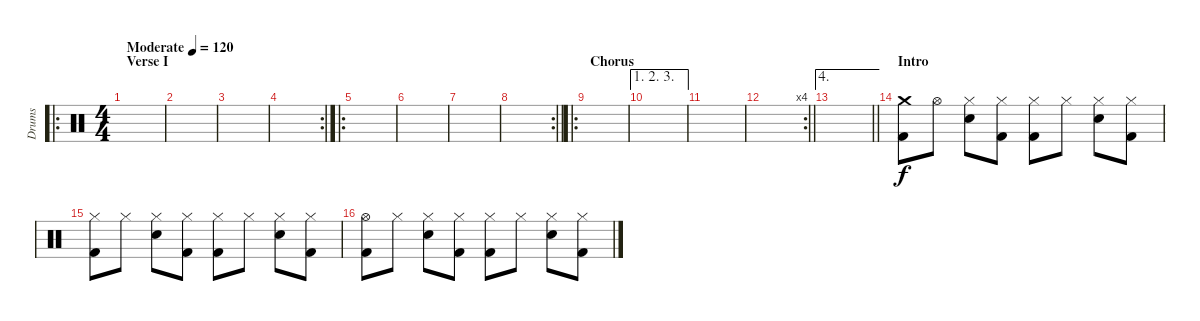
\track ("Drums" "Drums") {instrument percussion}
\staff {score}
\articulation defaults
\ro
\ts (4 4)
\section ("" "Verse I")
\tempo (120 "Moderate")
\clef neutral
\ks c
|
|
|
\rc 2
|
\ro
|
|
|
\rc 2
\barLineRight lightlight
|
\ro
\section ("" "Chorus")
|
\ae (1 2 3)
|
|
\rc 4
\barLineRight lightlight
|
\ae 4
\barLineRight lightlight
|
\section ("" "Intro")
("Kick (hit) 2" "Crash medium (hit)").8 "Hi-Hat (open)".8 ("Snare (hit) 2" "Hi-Hat (closed)").8 ("Kick (hit) 2" "Hi-Hat (closed)").8 ("Kick (hit) 2" "Hi-Hat (closed)").8 "Hi-Hat (closed)".8 ("Snare (hit) 2" "Hi-Hat (closed)").8 ("Kick (hit) 2" "Hi-Hat (closed)").8 |
("Kick (hit) 2" "Hi-Hat (closed)").8 "Hi-Hat (closed)".8 ("Snare (hit) 2" "Hi-Hat (closed)").8 ("Kick (hit) 2" "Hi-Hat (closed)").8 ("Kick (hit) 2" "Hi-Hat (closed)").8 "Hi-Hat (closed)".8 ("Snare (hit) 2" "Hi-Hat (closed)").8 ("Kick (hit) 2" "Hi-Hat (closed)").8 |
("Kick (hit) 2" "Hi-Hat (open)").8 "Hi-Hat (closed)".8 ("Snare (hit) 2" "Hi-Hat (closed)").8 ("Kick (hit) 2" "Hi-Hat (closed)").8 ("Kick (hit) 2" "Hi-Hat (closed)").8 "Hi-Hat (closed)".8 ("Snare (hit) 2" "Hi-Hat (closed)").8 ("Kick (hit) 2" "Hi-Hat (closed)").8
